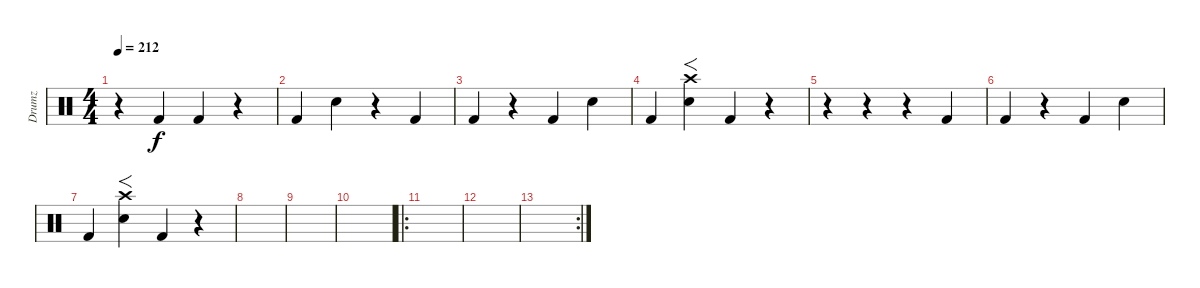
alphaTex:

\track ("Drumz" "Drumz") {instrument percussion}
\staff {score}
\articulation defaults
\ts (4 4)
\tempo 212
\clef neutral
\ks c
r.4{dy f} "Kick (hit) 2".4 "Kick (hit) 2".4 r.4 |
"Kick (hit) 2".4 "Snare (hit) 2".4 r.4 "Kick (hit) 2".4 |
"Kick (hit) 2".4 r.4 "Kick (hit) 2".4 "Snare (hit) 2".4 |
"Kick (hit) 2".4 ("Snare (hit) 2" "Crash high (hit)").4{f} "Kick (hit) 2".4 r.4 |
r.4 r.4 r.4 "Kick (hit) 2".4 |
"Kick (hit) 2".4 r.4 "Kick (hit) 2".4 "Snare (hit) 2".4 |
"Kick (hit) 2".4 ("Snare (hit) 2" "Crash high (hit)").4{f} "Kick (hit) 2".4 r.4 |
|
|
|
\ro
|
|
\rc 2
